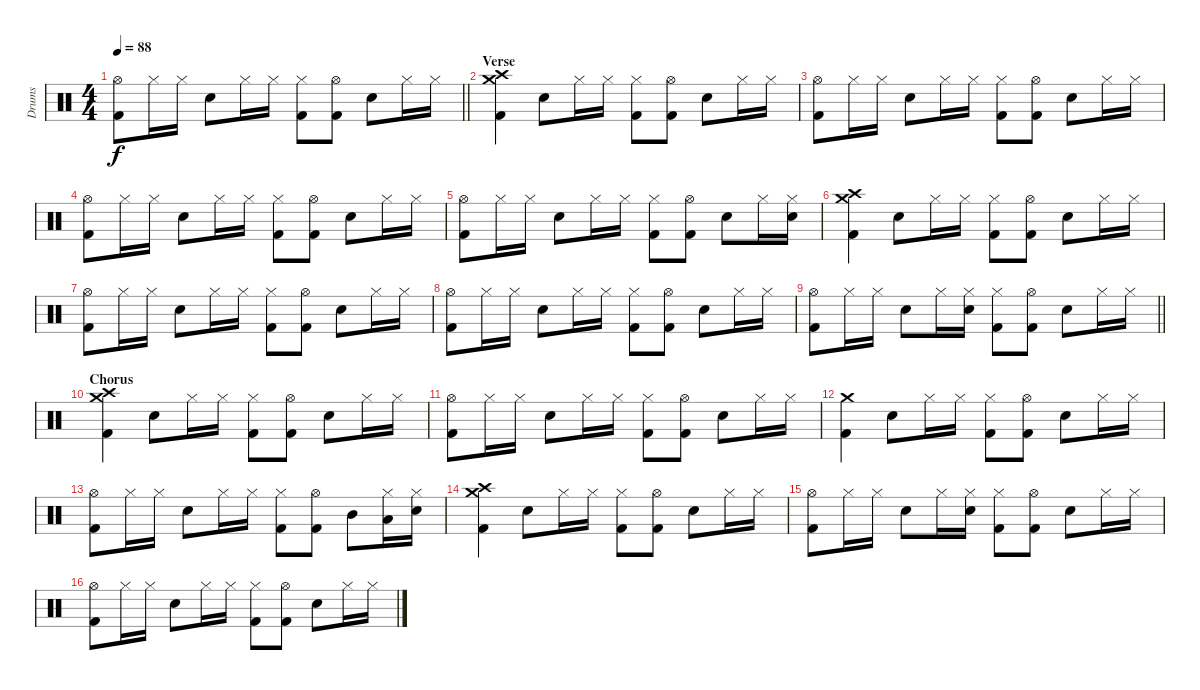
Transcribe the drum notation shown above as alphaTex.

\track ("Drums" "Drums") {instrument percussion}
\staff {score}
\articulation defaults
\ts (4 4)
\tempo 88
\clef neutral
\barLineRight lightlight
\ks c
("Hi-Hat (open)" "Kick (hit) 2").8{dy f} "Hi-Hat (closed)".16 "Hi-Hat (closed)".16 "Electric Snare (hit)".8 "Hi-Hat (closed)".16 "Hi-Hat (closed)".16 ("Hi-Hat (closed)" "Kick (hit) 2").8 ("Hi-Hat (open)" "Kick (hit) 2").8 "Electric Snare (hit)".8 "Hi-Hat (closed)".16 "Hi-Hat (closed)".16 |
\section ("" "Verse")
("Crash medium (hit)" "Crash high (hit)" "Kick (hit) 2").4 "Electric Snare (hit)".8 "Hi-Hat (closed)".16 "Hi-Hat (closed)".16 ("Hi-Hat (closed)" "Kick (hit) 2").8 ("Hi-Hat (open)" "Kick (hit) 2").8 "Electric Snare (hit)".8 "Hi-Hat (closed)".16 "Hi-Hat (closed)".16 |
("Hi-Hat (open)" "Kick (hit) 2").8 "Hi-Hat (closed)".16 "Hi-Hat (closed)".16 "Electric Snare (hit)".8 "Hi-Hat (closed)".16 "Hi-Hat (closed)".16 ("Hi-Hat (closed)" "Kick (hit) 2").8 ("Hi-Hat (open)" "Kick (hit) 2").8 "Electric Snare (hit)".8 "Hi-Hat (closed)".16 "Hi-Hat (closed)".16 |
("Hi-Hat (open)" "Kick (hit) 2").8 "Hi-Hat (closed)".16 "Hi-Hat (closed)".16 "Electric Snare (hit)".8 "Hi-Hat (closed)".16 "Hi-Hat (closed)".16 ("Hi-Hat (closed)" "Kick (hit) 2").8 ("Hi-Hat (open)" "Kick (hit) 2").8 "Electric Snare (hit)".8 "Hi-Hat (closed)".16 "Hi-Hat (closed)".16 |
("Hi-Hat (open)" "Kick (hit) 2").8 "Hi-Hat (closed)".16 "Hi-Hat (closed)".16 "Electric Snare (hit)".8 "Hi-Hat (closed)".16 "Hi-Hat (closed)".16 ("Hi-Hat (closed)" "Kick (hit) 2").8 ("Hi-Hat (open)" "Kick (hit) 2").8 "Electric Snare (hit)".8 "Hi-Hat (closed)".16 ("Hi-Hat (closed)" "Electric Snare (hit)").16 |
("Crash medium (hit)" "Crash high (hit)" "Kick (hit) 2").4 "Electric Snare (hit)".8 "Hi-Hat (closed)".16 "Hi-Hat (closed)".16 ("Hi-Hat (closed)" "Kick (hit) 2").8 ("Hi-Hat (open)" "Kick (hit) 2").8 "Electric Snare (hit)".8 "Hi-Hat (closed)".16 "Hi-Hat (closed)".16 |
("Hi-Hat (open)" "Kick (hit) 2").8 "Hi-Hat (closed)".16 "Hi-Hat (closed)".16 "Electric Snare (hit)".8 "Hi-Hat (closed)".16 "Hi-Hat (closed)".16 ("Hi-Hat (closed)" "Kick (hit) 2").8 ("Hi-Hat (open)" "Kick (hit) 2").8 "Electric Snare (hit)".8 "Hi-Hat (closed)".16 "Hi-Hat (closed)".16 |
("Hi-Hat (open)" "Kick (hit) 2").8 "Hi-Hat (closed)".16 "Hi-Hat (closed)".16 "Electric Snare (hit)".8 "Hi-Hat (closed)".16 "Hi-Hat (closed)".16 ("Hi-Hat (closed)" "Kick (hit) 2").8 ("Hi-Hat (open)" "Kick (hit) 2").8 "Electric Snare (hit)".8 "Hi-Hat (closed)".16 "Hi-Hat (closed)".16 |
\barLineRight lightlight
("Hi-Hat (open)" "Kick (hit) 2").8 "Hi-Hat (closed)".16 "Hi-Hat (closed)".16 "Electric Snare (hit)".8 "Hi-Hat (closed)".16 ("Hi-Hat (closed)" "Electric Snare (hit)").16 ("Hi-Hat (closed)" "Kick (hit) 2").8 ("Hi-Hat (open)" "Kick (hit) 2").8 "Electric Snare (hit)".8 "Hi-Hat (closed)".16 "Hi-Hat (closed)".16 |
\section ("" "Chorus")
("Crash medium (hit)" "Crash high (hit)" "Kick (hit) 2").4 "Electric Snare (hit)".8 "Hi-Hat (closed)".16 "Hi-Hat (closed)".16 ("Hi-Hat (closed)" "Kick (hit) 2").8 ("Hi-Hat (open)" "Kick (hit) 2").8 "Electric Snare (hit)".8 "Hi-Hat (closed)".16 "Hi-Hat (closed)".16 |
("Hi-Hat (open)" "Kick (hit) 2").8 "Hi-Hat (closed)".16 "Hi-Hat (closed)".16 "Electric Snare (hit)".8 "Hi-Hat (closed)".16 "Hi-Hat (closed)".16 ("Hi-Hat (closed)" "Kick (hit) 2").8 ("Hi-Hat (open)" "Kick (hit) 2").8 "Electric Snare (hit)".8 "Hi-Hat (closed)".16 "Hi-Hat (closed)".16 |
("Crash medium (hit)" "Kick (hit) 2").4 "Electric Snare (hit)".8 "Hi-Hat (closed)".16 "Hi-Hat (closed)".16 ("Hi-Hat (closed)" "Kick (hit) 2").8 ("Hi-Hat (open)" "Kick (hit) 2").8 "Electric Snare (hit)".8 "Hi-Hat (closed)".16 "Hi-Hat (closed)".16 |
("Hi-Hat (open)" "Kick (hit) 2").8 "Hi-Hat (closed)".16 "Hi-Hat (closed)".16 "Electric Snare (hit)".8 "Hi-Hat (closed)".16 "Hi-Hat (closed)".16 ("Hi-Hat (closed)" "Kick (hit) 2").8 ("Hi-Hat (open)" "Kick (hit) 2").8 "Mid Tom (hit)".8 ("Hi-Hat (closed)" "Low Tom (hit)").16 ("Hi-Hat (closed)" "Electric Snare (hit)").16 |
("Crash medium (hit)" "Crash high (hit)" "Kick (hit) 2").4 "Electric Snare (hit)".8 "Hi-Hat (closed)".16 "Hi-Hat (closed)".16 ("Hi-Hat (closed)" "Kick (hit) 2").8 ("Hi-Hat (open)" "Kick (hit) 2").8 "Electric Snare (hit)".8 "Hi-Hat (closed)".16 "Hi-Hat (closed)".16 |
("Hi-Hat (open)" "Kick (hit) 2").8 "Hi-Hat (closed)".16 "Hi-Hat (closed)".16 "Electric Snare (hit)".8 "Hi-Hat (closed)".16 ("Hi-Hat (closed)" "Electric Snare (hit)").16 ("Hi-Hat (closed)" "Kick (hit) 2").8 ("Hi-Hat (open)" "Kick (hit) 2").8 "Electric Snare (hit)".8 "Hi-Hat (closed)".16 "Hi-Hat (closed)".16 |
("Hi-Hat (open)" "Kick (hit) 2").8 "Hi-Hat (closed)".16 "Hi-Hat (closed)".16 "Electric Snare (hit)".8 "Hi-Hat (closed)".16 "Hi-Hat (closed)".16 ("Hi-Hat (closed)" "Kick (hit) 2").8 ("Hi-Hat (open)" "Kick (hit) 2").8 "Electric Snare (hit)".8 "Hi-Hat (closed)".16 "Hi-Hat (closed)".16
